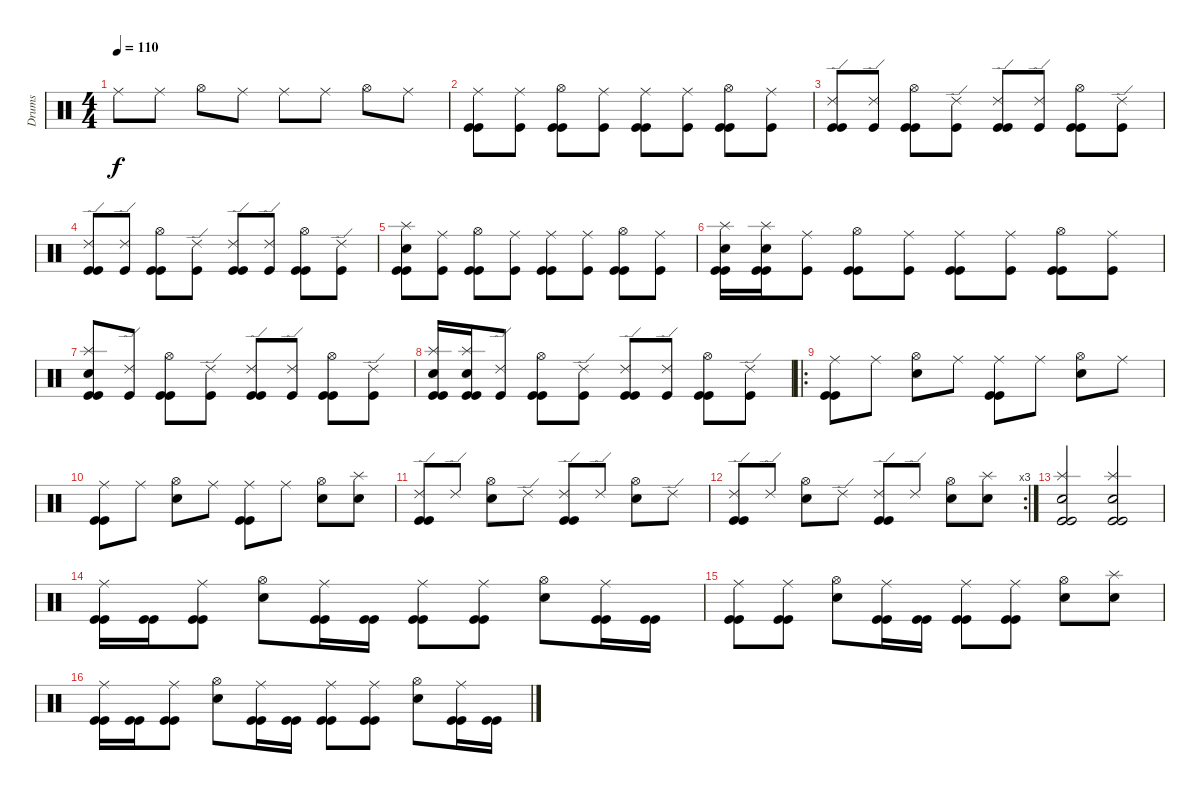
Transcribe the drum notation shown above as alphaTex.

\track ("Drums" "Drums") {instrument percussion}
\staff {score}
\articulation defaults
\ts (4 4)
\tempo 110
\clef neutral
\ks c "Ride (middle)".8{dy f} "Ride (middle)".8 "Hi-Hat (open)".8 "Ride (middle)".8 "Ride (middle)".8 "Ride (middle)".8 "Hi-Hat (open)".8 "Ride (middle)".8
|
("Ride (middle)" "Kick (hit)" "Kick (hit)").8 ("Ride (middle)" "Kick (hit)").8 ("Hi-Hat (open)" "Kick (hit)" "Kick (hit)").8 ("Ride (middle)" "Kick (hit)").8 ("Ride (middle)" "Kick (hit)" "Kick (hit)").8 ("Ride (middle)" "Kick (hit)").8 ("Hi-Hat (open)" "Kick (hit)" "Kick (hit)").8 ("Ride (middle)" "Kick (hit)").8 |
("Ride (edge) 2" "Kick (hit)" "Kick (hit)").8 ("Ride (edge) 2" "Kick (hit)").8 ("Hi-Hat (open)" "Kick (hit)" "Kick (hit)").8 ("Ride (edge) 2" "Kick (hit)").8 ("Ride (edge) 2" "Kick (hit)" "Kick (hit)").8 ("Ride (edge) 2" "Kick (hit)").8 ("Hi-Hat (open)" "Kick (hit)" "Kick (hit)").8 ("Ride (edge) 2" "Kick (hit)").8 |
("Ride (edge) 2" "Kick (hit)" "Kick (hit)").8 ("Ride (edge) 2" "Kick (hit)").8 ("Hi-Hat (open)" "Kick (hit)" "Kick (hit)").8 ("Ride (edge) 2" "Kick (hit)").8 ("Ride (edge) 2" "Kick (hit)" "Kick (hit)").8 ("Ride (edge) 2" "Kick (hit)").8 ("Hi-Hat (open)" "Kick (hit)" "Kick (hit)").8 ("Ride (edge) 2" "Kick (hit)").8 |
("Splash (hit)" "Snare (hit) 2" "Kick (hit)" "Kick (hit)").8 ("Ride (middle)" "Kick (hit)").8 ("Hi-Hat (open)" "Kick (hit)" "Kick (hit)").8 ("Ride (middle)" "Kick (hit)").8 ("Ride (middle)" "Kick (hit)" "Kick (hit)").8 ("Ride (middle)" "Kick (hit)").8 ("Hi-Hat (open)" "Kick (hit)" "Kick (hit)").8 ("Ride (middle)" "Kick (hit)").8 |
("Splash (hit)" "Snare (hit) 2" "Kick (hit)" "Kick (hit)").16 ("Splash (hit)" "Snare (hit) 2" "Kick (hit)" "Kick (hit)").16 ("Ride (middle)" "Kick (hit)").8 ("Hi-Hat (open)" "Kick (hit)" "Kick (hit)").8 ("Ride (middle)" "Kick (hit)").8 ("Ride (middle)" "Kick (hit)" "Kick (hit)").8 ("Ride (middle)" "Kick (hit)").8 ("Hi-Hat (open)" "Kick (hit)" "Kick (hit)").8 ("Ride (middle)" "Kick (hit)").8 |
("Splash (hit)" "Snare (hit) 2" "Kick (hit)" "Kick (hit)").8 ("Ride (edge) 2" "Kick (hit)").8 ("Hi-Hat (open)" "Kick (hit)" "Kick (hit)").8 ("Ride (edge) 2" "Kick (hit)").8 ("Ride (edge) 2" "Kick (hit)" "Kick (hit)").8 ("Ride (edge) 2" "Kick (hit)").8 ("Hi-Hat (open)" "Kick (hit)" "Kick (hit)").8 ("Ride (edge) 2" "Kick (hit)").8 |
("Splash (hit)" "Snare (hit) 2" "Kick (hit)" "Kick (hit)").16 ("Splash (hit)" "Snare (hit) 2" "Kick (hit)" "Kick (hit)").16 ("Ride (edge) 2" "Kick (hit)").8 ("Hi-Hat (open)" "Kick (hit)" "Kick (hit)").8 ("Ride (edge) 2" "Kick (hit)").8 ("Ride (edge) 2" "Kick (hit)" "Kick (hit)").8 ("Ride (edge) 2" "Kick (hit)").8 ("Hi-Hat (open)" "Kick (hit)" "Kick (hit)").8 ("Ride (edge) 2" "Kick (hit)").8 |
\ro
("Ride (middle)" "Kick (hit)" "Kick (hit)").8 "Ride (middle)".8 ("Hi-Hat (open)" "Snare (hit) 2").8 "Ride (middle)".8 ("Ride (middle)" "Kick (hit)" "Kick (hit)").8 "Ride (middle)".8 ("Hi-Hat (open)" "Snare (hit) 2").8 "Ride (middle)".8 |
("Ride (middle)" "Kick (hit)" "Kick (hit)").8 "Ride (middle)".8 ("Hi-Hat (open)" "Snare (hit) 2").8 "Ride (middle)".8 ("Ride (middle)" "Kick (hit)" "Kick (hit)").8 "Ride (middle)".8 ("Hi-Hat (open)" "Snare (hit) 2").8 ("Splash (hit)" "Snare (hit) 2").8 |
("Ride (edge) 2" "Kick (hit)" "Kick (hit)").8 "Ride (edge) 2".8 ("Hi-Hat (open)" "Snare (hit) 2").8 "Ride (edge) 2".8 ("Ride (edge) 2" "Kick (hit)" "Kick (hit)").8 "Ride (edge) 2".8 ("Hi-Hat (open)" "Snare (hit) 2").8 "Ride (edge) 2".8 |
\rc 3
("Ride (edge) 2" "Kick (hit)" "Kick (hit)").8 "Ride (edge) 2".8 ("Hi-Hat (open)" "Snare (hit) 2").8 "Ride (edge) 2".8 ("Ride (edge) 2" "Kick (hit)" "Kick (hit)").8 "Ride (edge) 2".8 ("Hi-Hat (open)" "Snare (hit) 2").8 ("Splash (hit)" "Snare (hit) 2").8 |
("Splash (hit)" "Snare (hit) 2" "Kick (hit)" "Kick (hit)").2 ("Splash (hit)" "Snare (hit) 2" "Kick (hit)" "Kick (hit)").2 |
("Ride (middle)" "Kick (hit)" "Kick (hit)").16 ("Kick (hit)" "Kick (hit)").16 ("Ride (middle)" "Kick (hit)" "Kick (hit)").8 ("Hi-Hat (open)" "Snare (hit) 2").8 ("Ride (middle)" "Kick (hit)" "Kick (hit)").16 ("Kick (hit)" "Kick (hit)").16 ("Ride (middle)" "Kick (hit)" "Kick (hit)").8 ("Ride (middle)" "Kick (hit)" "Kick (hit)").8 ("Hi-Hat (open)" "Snare (hit) 2").8 ("Ride (middle)" "Kick (hit)" "Kick (hit)").16 ("Kick (hit)" "Kick (hit)").16 |
("Ride (middle)" "Kick (hit)" "Kick (hit)").8 ("Ride (middle)" "Kick (hit)" "Kick (hit)").8 ("Hi-Hat (open)" "Snare (hit) 2").8 ("Ride (middle)" "Kick (hit)" "Kick (hit)").16 ("Kick (hit)" "Kick (hit)").16 ("Ride (middle)" "Kick (hit)" "Kick (hit)").8 ("Ride (middle)" "Kick (hit)" "Kick (hit)").8 ("Hi-Hat (open)" "Snare (hit) 2").8 ("Splash (hit)" "Snare (hit) 2").8 |
("Ride (middle)" "Kick (hit)" "Kick (hit)").16 ("Kick (hit)" "Kick (hit)").16 ("Ride (middle)" "Kick (hit)" "Kick (hit)").8 ("Hi-Hat (open)" "Snare (hit) 2").8 ("Ride (middle)" "Kick (hit)" "Kick (hit)").16 ("Kick (hit)" "Kick (hit)").16 ("Ride (middle)" "Kick (hit)" "Kick (hit)").8 ("Ride (middle)" "Kick (hit)" "Kick (hit)").8 ("Hi-Hat (open)" "Snare (hit) 2").8 ("Ride (middle)" "Kick (hit)" "Kick (hit)").16 ("Kick (hit)" "Kick (hit)").16
